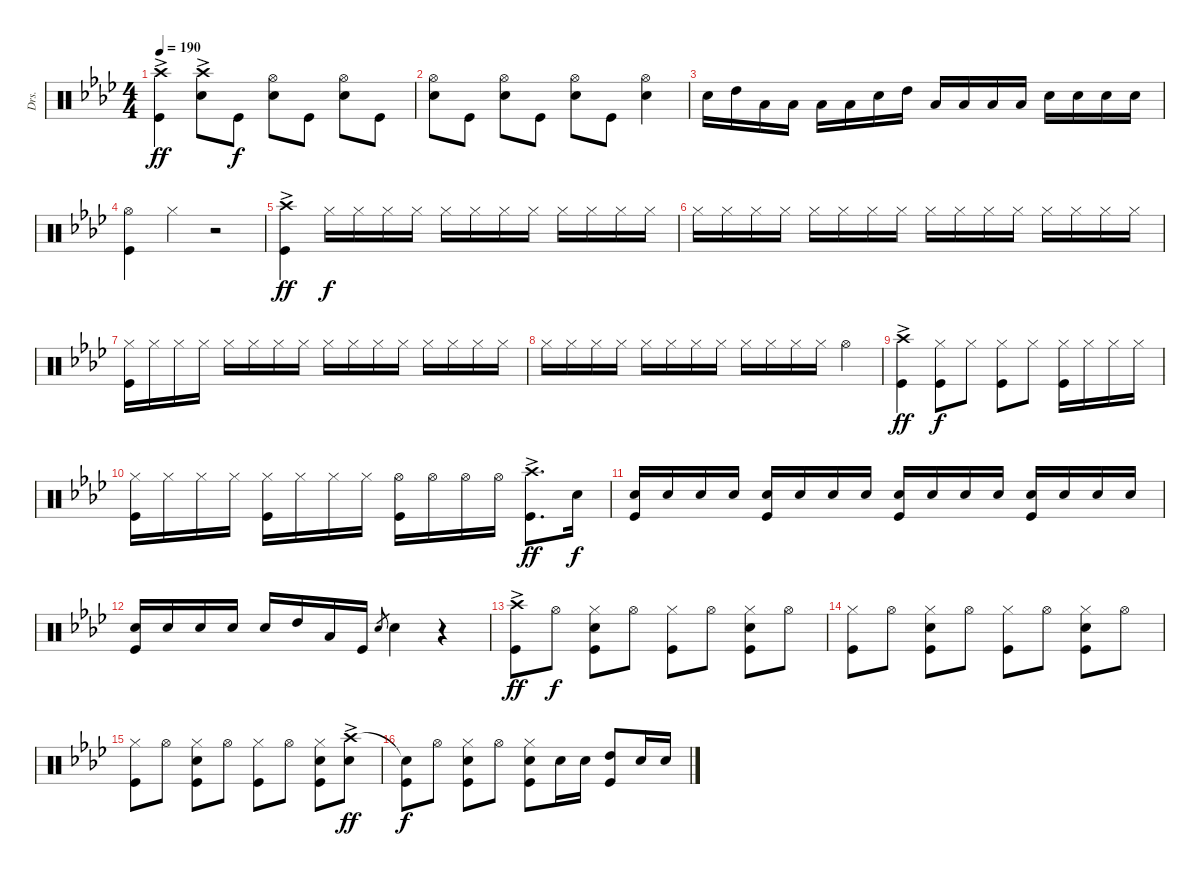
\track ("Drs." "Drs.") {instrument percussion}
\staff {score}
\articulation defaults
\ts (4 4)
\tempo 190
\clef neutral
\ks ab
("Crash high (hit)"{ac} "Kick (hit)").4{dy ff} ("Crash high (hit)"{ac} "Snare (hit) 2").8 "Kick (hit)".8{dy f} ("Hi-Hat (open)" "Snare (hit) 2").8 "Kick (hit)".8 ("Hi-Hat (open)" "Snare (hit) 2").8 "Kick (hit)".8 |
("Hi-Hat (open)" "Snare (hit) 2").8 "Kick (hit)".8 ("Hi-Hat (open)" "Snare (hit) 2").8 "Kick (hit)".8 ("Hi-Hat (open)" "Snare (hit) 2").8 "Kick (hit)".8 ("Hi-Hat (open)" "Snare (hit) 2").4 |
"Snare (hit) 2".16 "High Tom (hit)".16 "Low Tom (hit)".16 "Low Tom (hit)".16 "Low Tom (hit)".16 "Low Tom (hit)".16 "Snare (hit) 2".16 "High Tom (hit)".16 "Low Tom (hit)".16 "Low Tom (hit)".16 "Low Tom (hit)".16 "Low Tom (hit)".16 "Snare (hit) 2".16 "Snare (hit) 2".16 "Snare (hit) 2".16 "Snare (hit) 2".16 |
("Hi-Hat (open)" "Kick (hit)").4 "Hi-Hat (closed)".4 r.2 |
("Crash high (hit)"{ac} "Kick (hit)").4{dy ff} "Hi-Hat (closed)".16{dy f} "Hi-Hat (closed)".16 "Hi-Hat (closed)".16 "Hi-Hat (closed)".16 "Hi-Hat (closed)".16 "Hi-Hat (closed)".16 "Hi-Hat (closed)".16 "Hi-Hat (closed)".16 "Hi-Hat (closed)".16 "Hi-Hat (closed)".16 "Hi-Hat (closed)".16 "Hi-Hat (closed)".16 |
"Hi-Hat (closed)".16 "Hi-Hat (closed)".16 "Hi-Hat (closed)".16 "Hi-Hat (closed)".16 "Hi-Hat (closed)".16 "Hi-Hat (closed)".16 "Hi-Hat (closed)".16 "Hi-Hat (closed)".16 "Hi-Hat (closed)".16 "Hi-Hat (closed)".16 "Hi-Hat (closed)".16 "Hi-Hat (closed)".16 "Hi-Hat (closed)".16 "Hi-Hat (closed)".16 "Hi-Hat (closed)".16 "Hi-Hat (closed)".16 |
("Hi-Hat (closed)" "Kick (hit)").16 "Hi-Hat (closed)".16 "Hi-Hat (closed)".16 "Hi-Hat (closed)".16 "Hi-Hat (closed)".16 "Hi-Hat (closed)".16 "Hi-Hat (closed)".16 "Hi-Hat (closed)".16 "Hi-Hat (closed)".16 "Hi-Hat (closed)".16 "Hi-Hat (closed)".16 "Hi-Hat (closed)".16 "Hi-Hat (closed)".16 "Hi-Hat (closed)".16 "Hi-Hat (closed)".16 "Hi-Hat (closed)".16 |
"Hi-Hat (closed)".16 "Hi-Hat (closed)".16 "Hi-Hat (closed)".16 "Hi-Hat (closed)".16 "Hi-Hat (closed)".16 "Hi-Hat (closed)".16 "Hi-Hat (closed)".16 "Hi-Hat (closed)".16 "Hi-Hat (closed)".16 "Hi-Hat (closed)".16 "Hi-Hat (closed)".16 "Hi-Hat (closed)".16 "Hi-Hat (open)".4 |
("Crash high (hit)"{ac} "Kick (hit)").4{dy ff} ("Hi-Hat (closed)" "Kick (hit)").8{dy f} "Hi-Hat (closed)".8 ("Hi-Hat (closed)" "Kick (hit)").8 "Hi-Hat (closed)".8 ("Hi-Hat (closed)" "Kick (hit)").16 "Hi-Hat (closed)".16 "Hi-Hat (closed)".16 "Hi-Hat (closed)".16 |
("Hi-Hat (closed)" "Kick (hit)").16 "Hi-Hat (closed)".16 "Hi-Hat (closed)".16 "Hi-Hat (closed)".16 ("Hi-Hat (closed)" "Kick (hit)").16 "Hi-Hat (closed)".16 "Hi-Hat (closed)".16 "Hi-Hat (closed)".16 ("Hi-Hat (open)" "Kick (hit)").16 "Hi-Hat (open)".16 "Hi-Hat (open)".16 "Hi-Hat (open)".16 ("Crash high (hit)"{ac} "Kick (hit)").8{d dy ff} "Snare (hit) 2".16{dy f} |
("Snare (hit) 2" "Kick (hit)").16 "Snare (hit) 2".16 "Snare (hit) 2".16 "Snare (hit) 2".16 ("Snare (hit) 2" "Kick (hit)").16 "Snare (hit) 2".16 "Snare (hit) 2".16 "Snare (hit) 2".16 ("Snare (hit) 2" "Kick (hit)").16 "Snare (hit) 2".16 "Snare (hit) 2".16 "Snare (hit) 2".16 ("Snare (hit) 2" "Kick (hit)").16 "Snare (hit) 2".16 "Snare (hit) 2".16 "Snare (hit) 2".16 |
("Snare (hit) 2" "Kick (hit)").16 "Snare (hit) 2".16 "Snare (hit) 2".16 "Snare (hit) 2".16 "Snare (hit) 2".16 "High Tom (hit)".16 "Low Tom (hit)".16 "Kick (hit)".16 "Snare (hit) 2".8{gr} "Snare (hit) 2".4 r.4 |
("Crash high (hit)"{ac} "Kick (hit)").8{dy ff} "Hi-Hat (open)".8{dy f} ("Hi-Hat (closed)" "Snare (hit) 2" "Kick (hit)").8 "Hi-Hat (open)".8 ("Hi-Hat (closed)" "Kick (hit)").8 "Hi-Hat (open)".8 ("Hi-Hat (closed)" "Snare (hit) 2" "Kick (hit)").8 "Hi-Hat (open)".8 |
("Hi-Hat (closed)" "Kick (hit)").8 "Hi-Hat (open)".8 ("Hi-Hat (closed)" "Snare (hit) 2" "Kick (hit)").8 "Hi-Hat (open)".8 ("Hi-Hat (closed)" "Kick (hit)").8 "Hi-Hat (open)".8 ("Hi-Hat (closed)" "Snare (hit) 2" "Kick (hit)").8 "Hi-Hat (open)".8 |
("Hi-Hat (closed)" "Kick (hit)").8 "Hi-Hat (open)".8 ("Hi-Hat (closed)" "Snare (hit) 2" "Kick (hit)").8 "Hi-Hat (open)".8 ("Hi-Hat (closed)" "Kick (hit)").8 "Hi-Hat (open)".8 ("Hi-Hat (closed)" "Snare (hit) 2" "Kick (hit)").8 ("Crash high (hit)"{ac} "Snare (hit) 2").8{dy ff} |
("Snare (hit)"{t} "Kick (hit)").8{dy f} "Hi-Hat (open)".8 ("Hi-Hat (closed)" "Snare (hit) 2" "Kick (hit)").8 "Hi-Hat (open)".8 ("Hi-Hat (closed)" "Snare (hit) 2" "Kick (hit)").8 "Snare (hit) 2".16 "Snare (hit) 2".16 ("High Tom (hit)" "Kick (hit)").8 "Snare (hit) 2".16 "Snare (hit) 2".16
